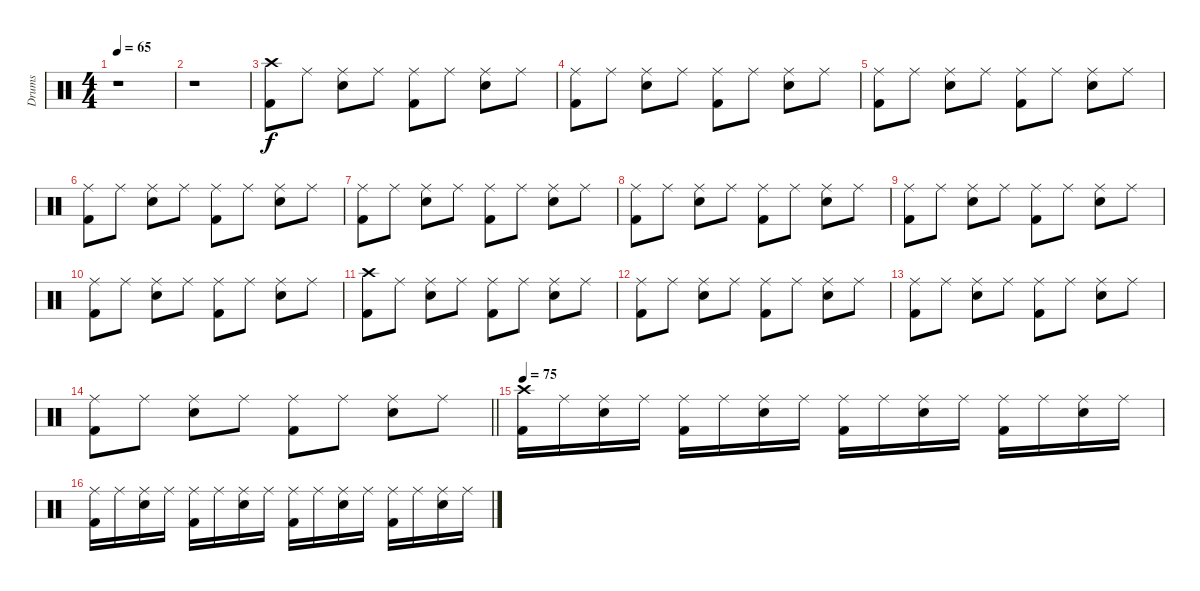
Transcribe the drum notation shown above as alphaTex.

\track ("Drums" "Drums") {instrument percussion}
\staff {score}
\articulation defaults
\ts (4 4)
\tempo 65
\clef neutral
\ks c
r.1{dy f} |
r.1 |
("Crash high (hit)" "Kick (hit) 2").8 "Ride (middle)".8 ("Ride (middle)" "Electric Snare (hit)").8 "Ride (middle)".8 ("Ride (middle)" "Kick (hit) 2").8 "Ride (middle)".8 ("Ride (middle)" "Electric Snare (hit)").8 "Ride (middle)".8 |
("Ride (middle)" "Kick (hit) 2").8 "Ride (middle)".8 ("Ride (middle)" "Electric Snare (hit)").8 "Ride (middle)".8 ("Ride (middle)" "Kick (hit) 2").8 "Ride (middle)".8 ("Ride (middle)" "Electric Snare (hit)").8 "Ride (middle)".8 |
("Ride (middle)" "Kick (hit) 2").8 "Ride (middle)".8 ("Ride (middle)" "Electric Snare (hit)").8 "Ride (middle)".8 ("Ride (middle)" "Kick (hit) 2").8 "Ride (middle)".8 ("Ride (middle)" "Electric Snare (hit)").8 "Ride (middle)".8 |
("Ride (middle)" "Kick (hit) 2").8 "Ride (middle)".8 ("Ride (middle)" "Electric Snare (hit)").8 "Ride (middle)".8 ("Ride (middle)" "Kick (hit) 2").8 "Ride (middle)".8 ("Ride (middle)" "Electric Snare (hit)").8 "Ride (middle)".8 |
("Ride (middle)" "Kick (hit) 2").8 "Ride (middle)".8 ("Ride (middle)" "Electric Snare (hit)").8 "Ride (middle)".8 ("Ride (middle)" "Kick (hit) 2").8 "Ride (middle)".8 ("Ride (middle)" "Electric Snare (hit)").8 "Ride (middle)".8 |
("Ride (middle)" "Kick (hit) 2").8 "Ride (middle)".8 ("Ride (middle)" "Electric Snare (hit)").8 "Ride (middle)".8 ("Ride (middle)" "Kick (hit) 2").8 "Ride (middle)".8 ("Ride (middle)" "Electric Snare (hit)").8 "Ride (middle)".8 |
("Ride (middle)" "Kick (hit) 2").8 "Ride (middle)".8 ("Ride (middle)" "Electric Snare (hit)").8 "Ride (middle)".8 ("Ride (middle)" "Kick (hit) 2").8 "Ride (middle)".8 ("Ride (middle)" "Electric Snare (hit)").8 "Ride (middle)".8 |
("Ride (middle)" "Kick (hit) 2").8 "Ride (middle)".8 ("Ride (middle)" "Electric Snare (hit)").8 "Ride (middle)".8 ("Ride (middle)" "Kick (hit) 2").8 "Ride (middle)".8 ("Ride (middle)" "Electric Snare (hit)").8 "Ride (middle)".8 |
("Crash high (hit)" "Kick (hit) 2").8 "Ride (middle)".8 ("Ride (middle)" "Electric Snare (hit)").8 "Ride (middle)".8 ("Ride (middle)" "Kick (hit) 2").8 "Ride (middle)".8 ("Ride (middle)" "Electric Snare (hit)").8 "Ride (middle)".8 |
("Ride (middle)" "Kick (hit) 2").8 "Ride (middle)".8 ("Ride (middle)" "Electric Snare (hit)").8 "Ride (middle)".8 ("Ride (middle)" "Kick (hit) 2").8 "Ride (middle)".8 ("Ride (middle)" "Electric Snare (hit)").8 "Ride (middle)".8 |
("Ride (middle)" "Kick (hit) 2").8 "Ride (middle)".8 ("Ride (middle)" "Electric Snare (hit)").8 "Ride (middle)".8 ("Ride (middle)" "Kick (hit) 2").8 "Ride (middle)".8 ("Ride (middle)" "Electric Snare (hit)").8 "Ride (middle)".8 |
\barLineRight lightlight
("Ride (middle)" "Kick (hit) 2").8 "Ride (middle)".8 ("Ride (middle)" "Electric Snare (hit)").8 "Ride (middle)".8 ("Ride (middle)" "Kick (hit) 2").8 "Ride (middle)".8 ("Ride (middle)" "Electric Snare (hit)").8 "Ride (middle)".8 |
\tempo 75
("Crash high (hit)" "Kick (hit) 2").16 "Ride (middle)".16 ("Ride (middle)" "Electric Snare (hit)").16 "Ride (middle)".16 ("Ride (middle)" "Kick (hit) 2").16 "Ride (middle)".16 ("Ride (middle)" "Electric Snare (hit)").16 "Ride (middle)".16 ("Ride (middle)" "Kick (hit) 2").16 "Ride (middle)".16 ("Ride (middle)" "Electric Snare (hit)").16 "Ride (middle)".16 ("Ride (middle)" "Kick (hit) 2").16 "Ride (middle)".16 ("Ride (middle)" "Electric Snare (hit)").16 "Ride (middle)".16 |
("Ride (middle)" "Kick (hit) 2").16 "Ride (middle)".16 ("Ride (middle)" "Electric Snare (hit)").16 "Ride (middle)".16 ("Ride (middle)" "Kick (hit) 2").16 "Ride (middle)".16 ("Ride (middle)" "Electric Snare (hit)").16 "Ride (middle)".16 ("Ride (middle)" "Kick (hit) 2").16 "Ride (middle)".16 ("Ride (middle)" "Electric Snare (hit)").16 "Ride (middle)".16 ("Ride (middle)" "Kick (hit) 2").16 "Ride (middle)".16 ("Ride (middle)" "Electric Snare (hit)").16 "Ride (middle)".16
